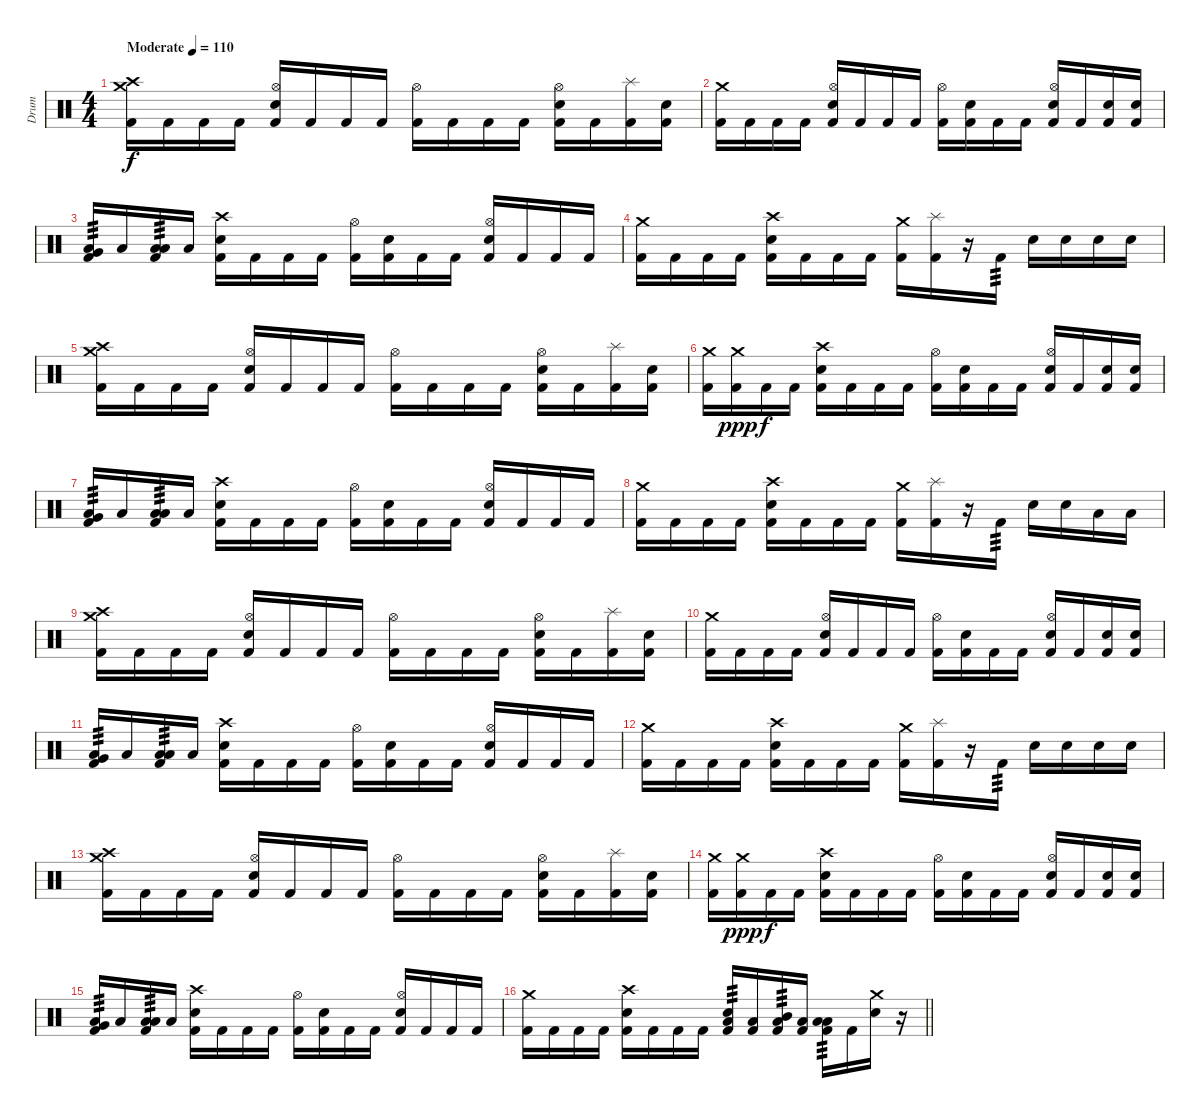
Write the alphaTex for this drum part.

\track ("Drum" "Drum") {instrument percussion}
\staff {score}
\articulation defaults
\ts (4 4)
\section ("" "")
\tempo (110 "Moderate")
\clef neutral
\ks c
("Crash medium (hit)" "Crash high (hit)" "Kick (hit) 2").16{dy f} "Kick (hit) 2".16 "Kick (hit) 2".16 "Kick (hit) 2".16 ("Hi-Hat (open)" "Snare (hit) 2" "Kick (hit) 2").16 "Kick (hit) 2".16 "Kick (hit) 2".16 "Kick (hit) 2".16 ("Hi-Hat (open)" "Kick (hit) 2").16 "Kick (hit) 2".16 "Kick (hit) 2".16 "Kick (hit) 2".16 ("Hi-Hat (open)" "Snare (hit) 2" "Kick (hit) 2").16 "Kick (hit) 2".16 ("Splash (hit)" "Kick (hit) 2").16 ("Snare (hit) 2" "Kick (hit) 2").16 |
("Crash medium (hit)" "Kick (hit) 2").16 "Kick (hit) 2".16 "Kick (hit) 2".16 "Kick (hit) 2".16 ("Hi-Hat (open)" "Snare (hit) 2" "Kick (hit) 2").16 "Kick (hit) 2".16 "Kick (hit) 2".16 "Kick (hit) 2".16 ("Hi-Hat (open)" "Kick (hit) 2").16 ("Snare (hit) 2" "Kick (hit) 2").16 "Kick (hit) 2".16 "Kick (hit) 2".16 ("Hi-Hat (open)" "Snare (hit) 2" "Kick (hit) 2").16 "Kick (hit) 2".16 ("Snare (hit) 2" "Kick (hit) 2").16 ("Snare (hit) 2" "Kick (hit) 2").16 |
("Low Floor Tom (hit)" "Very Low Tom (hit)" "Kick (hit) 2").16{tp 3} "Low Floor Tom (hit)".16 ("Low Floor Tom (hit)" "Low Tom (hit)" "Kick (hit) 2").16{tp 3} "Low Floor Tom (hit)".16 ("Crash high (hit)" "Snare (hit) 2" "Kick (hit) 2").16 "Kick (hit) 2".16 "Kick (hit) 2".16 "Kick (hit) 2".16 ("Hi-Hat (open)" "Kick (hit) 2").16 ("Snare (hit) 2" "Kick (hit) 2").16 "Kick (hit) 2".16 "Kick (hit) 2".16 ("Hi-Hat (open)" "Snare (hit) 2" "Kick (hit) 2").16 "Kick (hit) 2".16 "Kick (hit) 2".16 "Kick (hit) 2".16 |
("Crash medium (hit)" "Kick (hit) 2").16 "Kick (hit) 2".16 "Kick (hit) 2".16 "Kick (hit) 2".16 ("Crash high (hit)" "Snare (hit) 2" "Kick (hit) 2").16 "Kick (hit) 2".16 "Kick (hit) 2".16 "Kick (hit) 2".16 ("Crash medium (hit)" "Kick (hit) 2").16 ("Splash (hit)" "Kick (hit) 2").16 r.16 "Kick (hit) 2".16{tp 3} "Snare (hit) 2".16 "Snare (hit) 2".16 "Snare (hit) 2".16 "Snare (hit) 2".16 |
("Crash medium (hit)" "Crash high (hit)" "Kick (hit) 2").16 "Kick (hit) 2".16 "Kick (hit) 2".16 "Kick (hit) 2".16 ("Hi-Hat (open)" "Snare (hit) 2" "Kick (hit) 2").16 "Kick (hit) 2".16 "Kick (hit) 2".16 "Kick (hit) 2".16 ("Hi-Hat (open)" "Kick (hit) 2").16 "Kick (hit) 2".16 "Kick (hit) 2".16 "Kick (hit) 2".16 ("Hi-Hat (open)" "Snare (hit) 2" "Kick (hit) 2").16 "Kick (hit) 2".16 ("Splash (hit)" "Kick (hit) 2").16 ("Snare (hit) 2" "Kick (hit) 2").16 |
("Crash medium (hit)" "Kick (hit) 2").16 ("Crash medium (hit)" "Kick (hit) 2").16{dy ppp} "Kick (hit) 2".16{dy f} "Kick (hit) 2".16 ("Crash high (hit)" "Snare (hit) 2" "Kick (hit) 2").16 "Kick (hit) 2".16 "Kick (hit) 2".16 "Kick (hit) 2".16 ("Hi-Hat (open)" "Kick (hit) 2").16 ("Snare (hit) 2" "Kick (hit) 2").16 "Kick (hit) 2".16 "Kick (hit) 2".16 ("Hi-Hat (open)" "Snare (hit) 2" "Kick (hit) 2").16 "Kick (hit) 2".16 ("Snare (hit) 2" "Kick (hit) 2").16 ("Snare (hit) 2" "Kick (hit) 2").16 |
("Low Floor Tom (hit)" "Very Low Tom (hit)" "Kick (hit) 2").16{tp 3} "Low Floor Tom (hit)".16 ("Low Floor Tom (hit)" "Low Tom (hit)" "Kick (hit) 2").16{tp 3} "Low Floor Tom (hit)".16 ("Crash high (hit)" "Snare (hit) 2" "Kick (hit) 2").16 "Kick (hit) 2".16 "Kick (hit) 2".16 "Kick (hit) 2".16 ("Hi-Hat (open)" "Kick (hit) 2").16 ("Snare (hit) 2" "Kick (hit) 2").16 "Kick (hit) 2".16 "Kick (hit) 2".16 ("Hi-Hat (open)" "Snare (hit) 2" "Kick (hit) 2").16 "Kick (hit) 2".16 "Kick (hit) 2".16 "Kick (hit) 2".16 |
("Crash medium (hit)" "Kick (hit) 2").16 "Kick (hit) 2".16 "Kick (hit) 2".16 "Kick (hit) 2".16 ("Crash high (hit)" "Snare (hit) 2" "Kick (hit) 2").16 "Kick (hit) 2".16 "Kick (hit) 2".16 "Kick (hit) 2".16 ("Crash medium (hit)" "Kick (hit) 2").16 ("Splash (hit)" "Kick (hit) 2").16 r.16 "Kick (hit) 2".16{tp 3} "Snare (hit) 2".16 "Snare (hit) 2".16 "Low Floor Tom (hit)".16 "Low Floor Tom (hit)".16 |
("Crash medium (hit)" "Crash high (hit)" "Kick (hit) 2").16 "Kick (hit) 2".16 "Kick (hit) 2".16 "Kick (hit) 2".16 ("Hi-Hat (open)" "Snare (hit) 2" "Kick (hit) 2").16 "Kick (hit) 2".16 "Kick (hit) 2".16 "Kick (hit) 2".16 ("Hi-Hat (open)" "Kick (hit) 2").16 "Kick (hit) 2".16 "Kick (hit) 2".16 "Kick (hit) 2".16 ("Hi-Hat (open)" "Snare (hit) 2" "Kick (hit) 2").16 "Kick (hit) 2".16 ("Splash (hit)" "Kick (hit) 2").16 ("Snare (hit) 2" "Kick (hit) 2").16 |
("Crash medium (hit)" "Kick (hit) 2").16 "Kick (hit) 2".16 "Kick (hit) 2".16 "Kick (hit) 2".16 ("Hi-Hat (open)" "Snare (hit) 2" "Kick (hit) 2").16 "Kick (hit) 2".16 "Kick (hit) 2".16 "Kick (hit) 2".16 ("Hi-Hat (open)" "Kick (hit) 2").16 ("Snare (hit) 2" "Kick (hit) 2").16 "Kick (hit) 2".16 "Kick (hit) 2".16 ("Hi-Hat (open)" "Snare (hit) 2" "Kick (hit) 2").16 "Kick (hit) 2".16 ("Snare (hit) 2" "Kick (hit) 2").16 ("Snare (hit) 2" "Kick (hit) 2").16 |
("Low Floor Tom (hit)" "Very Low Tom (hit)" "Kick (hit) 2").16{tp 3} "Low Floor Tom (hit)".16 ("Low Floor Tom (hit)" "Low Tom (hit)" "Kick (hit) 2").16{tp 3} "Low Floor Tom (hit)".16 ("Crash high (hit)" "Snare (hit) 2" "Kick (hit) 2").16 "Kick (hit) 2".16 "Kick (hit) 2".16 "Kick (hit) 2".16 ("Hi-Hat (open)" "Kick (hit) 2").16 ("Snare (hit) 2" "Kick (hit) 2").16 "Kick (hit) 2".16 "Kick (hit) 2".16 ("Hi-Hat (open)" "Snare (hit) 2" "Kick (hit) 2").16 "Kick (hit) 2".16 "Kick (hit) 2".16 "Kick (hit) 2".16 |
("Crash medium (hit)" "Kick (hit) 2").16 "Kick (hit) 2".16 "Kick (hit) 2".16 "Kick (hit) 2".16 ("Crash high (hit)" "Snare (hit) 2" "Kick (hit) 2").16 "Kick (hit) 2".16 "Kick (hit) 2".16 "Kick (hit) 2".16 ("Crash medium (hit)" "Kick (hit) 2").16 ("Splash (hit)" "Kick (hit) 2").16 r.16 "Kick (hit) 2".16{tp 3} "Snare (hit) 2".16 "Snare (hit) 2".16 "Snare (hit) 2".16 "Snare (hit) 2".16 |
("Crash medium (hit)" "Crash high (hit)" "Kick (hit) 2").16 "Kick (hit) 2".16 "Kick (hit) 2".16 "Kick (hit) 2".16 ("Hi-Hat (open)" "Snare (hit) 2" "Kick (hit) 2").16 "Kick (hit) 2".16 "Kick (hit) 2".16 "Kick (hit) 2".16 ("Hi-Hat (open)" "Kick (hit) 2").16 "Kick (hit) 2".16 "Kick (hit) 2".16 "Kick (hit) 2".16 ("Hi-Hat (open)" "Snare (hit) 2" "Kick (hit) 2").16 "Kick (hit) 2".16 ("Splash (hit)" "Kick (hit) 2").16 ("Snare (hit) 2" "Kick (hit) 2").16 |
("Crash medium (hit)" "Kick (hit) 2").16 ("Crash medium (hit)" "Kick (hit) 2").16{dy ppp} "Kick (hit) 2".16{dy f} "Kick (hit) 2".16 ("Crash high (hit)" "Snare (hit) 2" "Kick (hit) 2").16 "Kick (hit) 2".16 "Kick (hit) 2".16 "Kick (hit) 2".16 ("Hi-Hat (open)" "Kick (hit) 2").16 ("Snare (hit) 2" "Kick (hit) 2").16 "Kick (hit) 2".16 "Kick (hit) 2".16 ("Hi-Hat (open)" "Snare (hit) 2" "Kick (hit) 2").16 "Kick (hit) 2".16 ("Snare (hit) 2" "Kick (hit) 2").16 ("Snare (hit) 2" "Kick (hit) 2").16 |
("Low Floor Tom (hit)" "Very Low Tom (hit)" "Kick (hit) 2").16{tp 3} "Low Floor Tom (hit)".16 ("Low Floor Tom (hit)" "Low Tom (hit)" "Kick (hit) 2").16{tp 3} "Low Floor Tom (hit)".16 ("Crash high (hit)" "Snare (hit) 2" "Kick (hit) 2").16 "Kick (hit) 2".16 "Kick (hit) 2".16 "Kick (hit) 2".16 ("Hi-Hat (open)" "Kick (hit) 2").16 ("Snare (hit) 2" "Kick (hit) 2").16 "Kick (hit) 2".16 "Kick (hit) 2".16 ("Hi-Hat (open)" "Snare (hit) 2" "Kick (hit) 2").16 "Kick (hit) 2".16 "Kick (hit) 2".16 "Kick (hit) 2".16 |
\barLineRight lightlight
("Crash medium (hit)" "Kick (hit) 2").16 "Kick (hit) 2".16 "Kick (hit) 2".16 "Kick (hit) 2".16 ("Crash high (hit)" "Snare (hit) 2" "Kick (hit) 2").16 "Kick (hit) 2".16 "Kick (hit) 2".16 "Kick (hit) 2".16 ("Snare (hit) 2" "Low Floor Tom (hit)" "Kick (hit) 2").16{tp 3} ("Low Floor Tom (hit)" "Kick (hit) 2").16 ("Mid Tom (hit)" "Low Floor Tom (hit)" "Kick (hit) 2").16{tp 3} ("Low Floor Tom (hit)" "Kick (hit) 2").16 ("Low Tom (hit)" "Low Floor Tom (hit)" "Kick (hit) 2").16{tp 3} "Kick (hit) 2".16 ("Crash medium (hit)" "Snare (hit) 2").16 r.16
